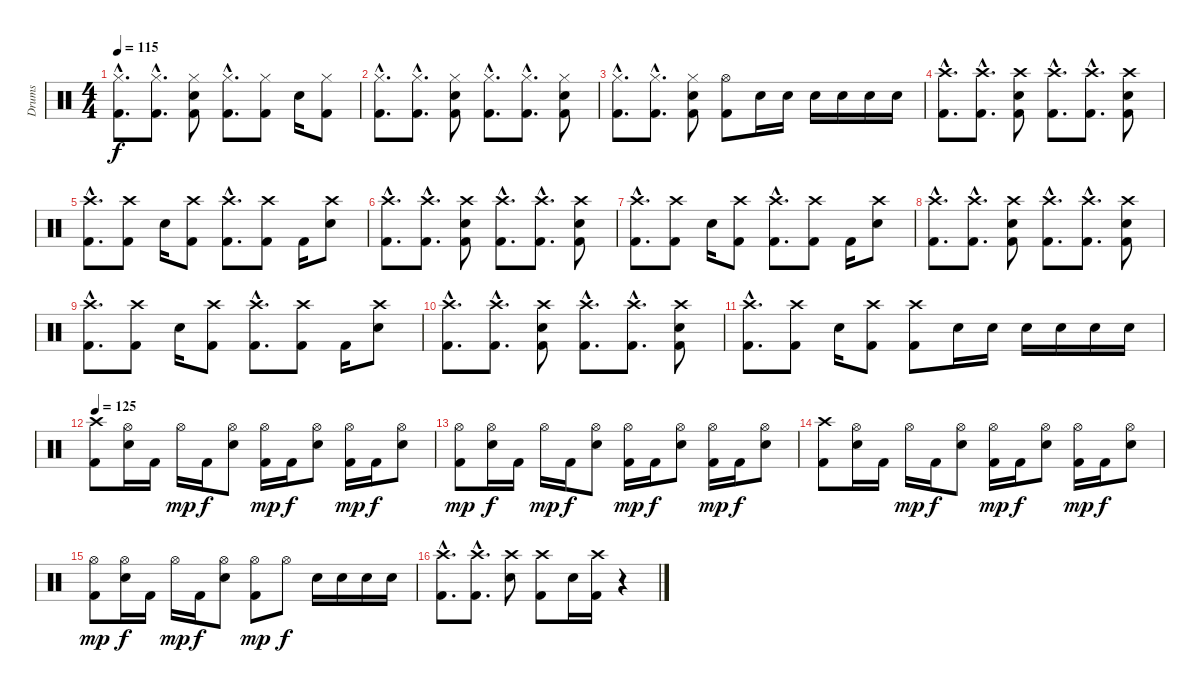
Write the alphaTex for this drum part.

\track ("Drums" "Drums") {instrument percussion}
\staff {score}
\articulation defaults
\ts (4 4)
\tempo 115
\clef neutral
\ks c
("Hi-Hat (closed)"{hac} "Kick (hit) 2"{hac}).8{d dy f} ("Hi-Hat (closed)"{hac} "Kick (hit) 2"{hac}).8{d} ("Hi-Hat (closed)" "Electric Snare (hit)" "Kick (hit) 2").8 ("Hi-Hat (closed)"{hac} "Kick (hit) 2"{hac}).8{d} ("Hi-Hat (closed)" "Kick (hit) 2").8 "Electric Snare (hit)".16 ("Hi-Hat (closed)" "Kick (hit) 2").8 |
("Hi-Hat (closed)"{hac} "Kick (hit) 2"{hac}).8{d} ("Hi-Hat (closed)"{hac} "Kick (hit) 2"{hac}).8{d} ("Hi-Hat (closed)" "Electric Snare (hit)" "Kick (hit) 2").8 ("Hi-Hat (closed)"{hac} "Kick (hit) 2"{hac}).8{d} ("Hi-Hat (closed)"{hac} "Kick (hit) 2"{hac}).8{d} ("Hi-Hat (closed)" "Electric Snare (hit)" "Kick (hit) 2").8 |
("Hi-Hat (closed)"{hac} "Kick (hit) 2"{hac}).8{d} ("Hi-Hat (closed)"{hac} "Kick (hit) 2"{hac}).8{d} ("Hi-Hat (closed)" "Electric Snare (hit)" "Kick (hit) 2").8 ("Hi-Hat (open)" "Kick (hit) 2").8 "Electric Snare (hit)".16 "Electric Snare (hit)".16 "Electric Snare (hit)".16 "Electric Snare (hit)".16 "Electric Snare (hit)".16 "Electric Snare (hit)".16 |
("Crash high (hit)"{hac} "Kick (hit) 2"{hac}).8{d} ("Crash high (hit)"{hac} "Kick (hit) 2"{hac}).8{d} ("Crash high (hit)" "Electric Snare (hit)" "Kick (hit) 2").8 ("Crash high (hit)"{hac} "Kick (hit) 2"{hac}).8{d} ("Crash high (hit)"{hac} "Kick (hit) 2"{hac}).8{d} ("Crash high (hit)" "Electric Snare (hit)" "Kick (hit) 2").8 |
("Crash high (hit)"{hac} "Kick (hit) 2"{hac}).8{d} ("Crash high (hit)" "Kick (hit) 2").8 "Electric Snare (hit)".16 ("Crash high (hit)" "Kick (hit) 2").8 ("Crash high (hit)"{hac} "Kick (hit) 2"{hac}).8{d} ("Crash high (hit)" "Kick (hit) 2").8 "Kick (hit) 2".16 ("Crash high (hit)" "Electric Snare (hit)").8 |
("Crash high (hit)"{hac} "Kick (hit) 2"{hac}).8{d} ("Crash high (hit)"{hac} "Kick (hit) 2"{hac}).8{d} ("Crash high (hit)" "Electric Snare (hit)" "Kick (hit) 2").8 ("Crash high (hit)"{hac} "Kick (hit) 2"{hac}).8{d} ("Crash high (hit)"{hac} "Kick (hit) 2"{hac}).8{d} ("Crash high (hit)" "Electric Snare (hit)" "Kick (hit) 2").8 |
("Crash high (hit)"{hac} "Kick (hit) 2"{hac}).8{d} ("Crash high (hit)" "Kick (hit) 2").8 "Electric Snare (hit)".16 ("Crash high (hit)" "Kick (hit) 2").8 ("Crash high (hit)"{hac} "Kick (hit) 2"{hac}).8{d} ("Crash high (hit)" "Kick (hit) 2").8 "Kick (hit) 2".16 ("Crash high (hit)" "Electric Snare (hit)").8 |
("Crash high (hit)"{hac} "Kick (hit) 2"{hac}).8{d} ("Crash high (hit)"{hac} "Kick (hit) 2"{hac}).8{d} ("Crash high (hit)" "Electric Snare (hit)" "Kick (hit) 2").8 ("Crash high (hit)"{hac} "Kick (hit) 2"{hac}).8{d} ("Crash high (hit)"{hac} "Kick (hit) 2"{hac}).8{d} ("Crash high (hit)" "Electric Snare (hit)" "Kick (hit) 2").8 |
("Crash high (hit)"{hac} "Kick (hit) 2"{hac}).8{d} ("Crash high (hit)" "Kick (hit) 2").8 "Electric Snare (hit)".16 ("Crash high (hit)" "Kick (hit) 2").8 ("Crash high (hit)"{hac} "Kick (hit) 2"{hac}).8{d} ("Crash high (hit)" "Kick (hit) 2").8 "Kick (hit) 2".16 ("Crash high (hit)" "Electric Snare (hit)").8 |
("Crash high (hit)"{hac} "Kick (hit) 2"{hac}).8{d} ("Crash high (hit)"{hac} "Kick (hit) 2"{hac}).8{d} ("Crash high (hit)" "Electric Snare (hit)" "Kick (hit) 2").8 ("Crash high (hit)"{hac} "Kick (hit) 2"{hac}).8{d} ("Crash high (hit)"{hac} "Kick (hit) 2"{hac}).8{d} ("Crash high (hit)" "Electric Snare (hit)" "Kick (hit) 2").8 |
("Crash high (hit)"{hac} "Kick (hit) 2"{hac}).8{d} ("Crash high (hit)" "Kick (hit) 2").8 "Electric Snare (hit)".16 ("Crash high (hit)" "Kick (hit) 2").8 ("Crash high (hit)" "Kick (hit) 2").8 "Electric Snare (hit)".16 "Electric Snare (hit)".16 "Electric Snare (hit)".16 "Electric Snare (hit)".16 "Electric Snare (hit)".16 "Electric Snare (hit)".16 |
\tempo 125
("Crash high (hit)" "Kick (hit) 2").8 ("Hi-Hat (open)" "Electric Snare (hit)").16 "Kick (hit) 2".16 "Hi-Hat (open)".16{dy mp} "Kick (hit) 2".16{dy f} ("Hi-Hat (open)" "Electric Snare (hit)").8 ("Hi-Hat (open)" "Kick (hit) 2").16{dy mp} "Kick (hit) 2".16{dy f} ("Hi-Hat (open)" "Electric Snare (hit)").8 ("Hi-Hat (open)" "Kick (hit) 2").16{dy mp} "Kick (hit) 2".16{dy f} ("Hi-Hat (open)" "Electric Snare (hit)").8 |
("Hi-Hat (open)" "Kick (hit) 2").8{dy mp} ("Hi-Hat (open)" "Electric Snare (hit)").16{dy f} "Kick (hit) 2".16 "Hi-Hat (open)".16{dy mp} "Kick (hit) 2".16{dy f} ("Hi-Hat (open)" "Electric Snare (hit)").8 ("Hi-Hat (open)" "Kick (hit) 2").16{dy mp} "Kick (hit) 2".16{dy f} ("Hi-Hat (open)" "Electric Snare (hit)").8 ("Hi-Hat (open)" "Kick (hit) 2").16{dy mp} "Kick (hit) 2".16{dy f} ("Hi-Hat (open)" "Electric Snare (hit)").8 |
("Crash high (hit)" "Kick (hit) 2").8 ("Hi-Hat (open)" "Electric Snare (hit)").16 "Kick (hit) 2".16 "Hi-Hat (open)".16{dy mp} "Kick (hit) 2".16{dy f} ("Hi-Hat (open)" "Electric Snare (hit)").8 ("Hi-Hat (open)" "Kick (hit) 2").16{dy mp} "Kick (hit) 2".16{dy f} ("Hi-Hat (open)" "Electric Snare (hit)").8 ("Hi-Hat (open)" "Kick (hit) 2").16{dy mp} "Kick (hit) 2".16{dy f} ("Hi-Hat (open)" "Electric Snare (hit)").8 |
("Hi-Hat (open)" "Kick (hit) 2").8{dy mp} ("Hi-Hat (open)" "Electric Snare (hit)").16{dy f} "Kick (hit) 2".16 "Hi-Hat (open)".16{dy mp} "Kick (hit) 2".16{dy f} ("Hi-Hat (open)" "Electric Snare (hit)").8 ("Hi-Hat (open)" "Kick (hit) 2").8{dy mp} "Hi-Hat (open)".8{dy f} "Electric Snare (hit)".16 "Electric Snare (hit)".16 "Electric Snare (hit)".16 "Electric Snare (hit)".16 |
("Crash high (hit)"{hac} "Kick (hit) 2"{hac}).8{d} ("Crash high (hit)"{hac} "Kick (hit) 2"{hac}).8{d} ("Crash high (hit)" "Electric Snare (hit)").8 ("Crash high (hit)" "Kick (hit) 2").8 "Electric Snare (hit)".16 ("Crash high (hit)" "Kick (hit) 2").16 r.4
